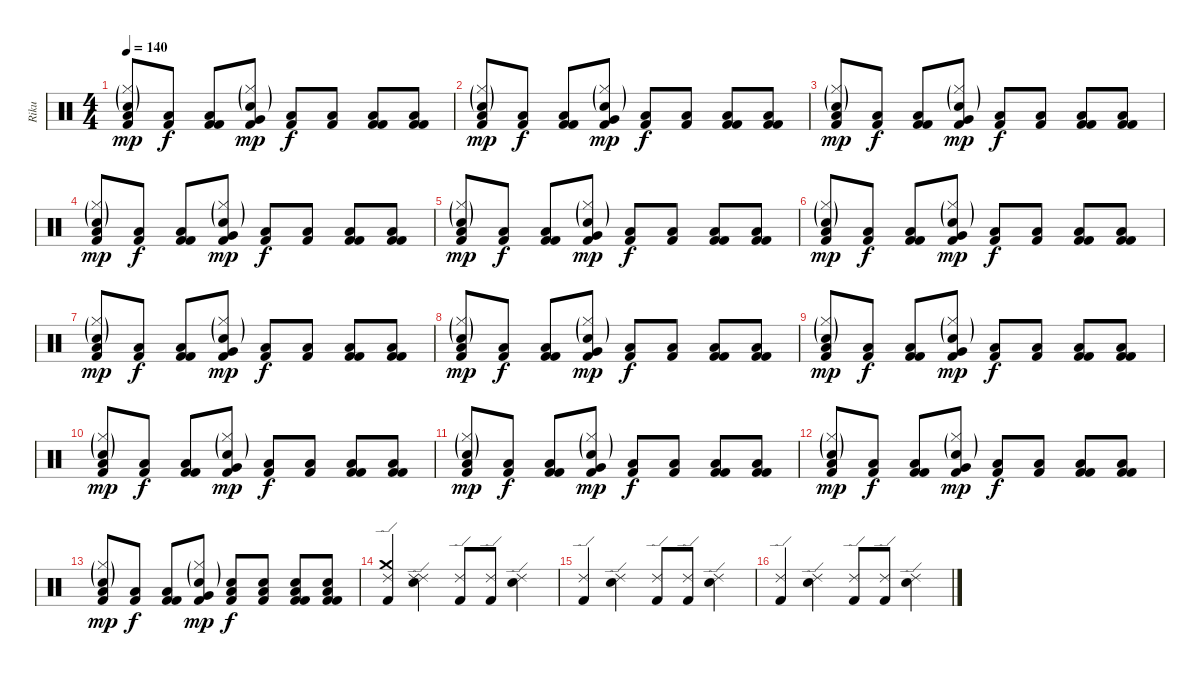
\track ("Riku" "Riku") {instrument percussion}
\staff {score}
\articulation defaults
\ts (4 4)
\tempo 140
\clef neutral
\ks c
("Kick (hit) 2" "Hi-Hat (closed)"{g} "Low Tom (hit)" "Electric Snare (hit)"{g}).8{dy mp} ("Kick (hit) 2" "Low Tom (hit)").8{dy f} ("Kick (hit) 2" "Low Tom (hit)" "Kick (hit) 2").8 ("Kick (hit) 2" "Hi-Hat (closed)"{g} "Very Low Tom (hit)" "Electric Snare (hit)"{g}).8{dy mp} ("Kick (hit) 2" "Low Tom (hit)").8{dy f} ("Kick (hit) 2" "Low Tom (hit)").8 ("Kick (hit) 2" "Low Tom (hit)" "Kick (hit) 2").8 ("Kick (hit) 2" "Low Tom (hit)" "Kick (hit) 2").8 |
("Kick (hit) 2" "Hi-Hat (closed)"{g} "Low Tom (hit)" "Electric Snare (hit)"{g}).8{dy mp} ("Kick (hit) 2" "Low Tom (hit)").8{dy f} ("Kick (hit) 2" "Low Tom (hit)" "Kick (hit) 2").8 ("Kick (hit) 2" "Hi-Hat (closed)"{g} "Very Low Tom (hit)" "Electric Snare (hit)"{g}).8{dy mp} ("Kick (hit) 2" "Low Tom (hit)").8{dy f} ("Kick (hit) 2" "Low Tom (hit)").8 ("Kick (hit) 2" "Low Tom (hit)" "Kick (hit) 2").8 ("Kick (hit) 2" "Low Tom (hit)" "Kick (hit) 2").8 |
("Kick (hit) 2" "Hi-Hat (closed)"{g} "Low Tom (hit)" "Electric Snare (hit)"{g}).8{dy mp} ("Kick (hit) 2" "Low Tom (hit)").8{dy f} ("Kick (hit) 2" "Low Tom (hit)" "Kick (hit) 2").8 ("Kick (hit) 2" "Hi-Hat (closed)"{g} "Very Low Tom (hit)" "Electric Snare (hit)"{g}).8{dy mp} ("Kick (hit) 2" "Low Tom (hit)").8{dy f} ("Kick (hit) 2" "Low Tom (hit)").8 ("Kick (hit) 2" "Low Tom (hit)" "Kick (hit) 2").8 ("Kick (hit) 2" "Low Tom (hit)" "Kick (hit) 2").8 |
("Kick (hit) 2" "Hi-Hat (closed)"{g} "Low Tom (hit)" "Electric Snare (hit)"{g}).8{dy mp} ("Kick (hit) 2" "Low Tom (hit)").8{dy f} ("Kick (hit) 2" "Low Tom (hit)" "Kick (hit) 2").8 ("Kick (hit) 2" "Hi-Hat (closed)"{g} "Very Low Tom (hit)" "Electric Snare (hit)"{g}).8{dy mp} ("Kick (hit) 2" "Low Tom (hit)").8{dy f} ("Kick (hit) 2" "Low Tom (hit)").8 ("Kick (hit) 2" "Low Tom (hit)" "Kick (hit) 2").8 ("Kick (hit) 2" "Low Tom (hit)" "Kick (hit) 2").8 |
("Kick (hit) 2" "Hi-Hat (closed)"{g} "Low Tom (hit)" "Electric Snare (hit)"{g}).8{dy mp} ("Kick (hit) 2" "Low Tom (hit)").8{dy f} ("Kick (hit) 2" "Low Tom (hit)" "Kick (hit) 2").8 ("Kick (hit) 2" "Hi-Hat (closed)"{g} "Very Low Tom (hit)" "Electric Snare (hit)"{g}).8{dy mp} ("Kick (hit) 2" "Low Tom (hit)").8{dy f} ("Kick (hit) 2" "Low Tom (hit)").8 ("Kick (hit) 2" "Low Tom (hit)" "Kick (hit) 2").8 ("Kick (hit) 2" "Low Tom (hit)" "Kick (hit) 2").8 |
("Kick (hit) 2" "Hi-Hat (closed)"{g} "Low Tom (hit)" "Electric Snare (hit)"{g}).8{dy mp} ("Kick (hit) 2" "Low Tom (hit)").8{dy f} ("Kick (hit) 2" "Low Tom (hit)" "Kick (hit) 2").8 ("Kick (hit) 2" "Hi-Hat (closed)"{g} "Very Low Tom (hit)" "Electric Snare (hit)"{g}).8{dy mp} ("Kick (hit) 2" "Low Tom (hit)").8{dy f} ("Kick (hit) 2" "Low Tom (hit)").8 ("Kick (hit) 2" "Low Tom (hit)" "Kick (hit) 2").8 ("Kick (hit) 2" "Low Tom (hit)" "Kick (hit) 2").8 |
("Kick (hit) 2" "Hi-Hat (closed)"{g} "Low Tom (hit)" "Electric Snare (hit)"{g}).8{dy mp} ("Kick (hit) 2" "Low Tom (hit)").8{dy f} ("Kick (hit) 2" "Low Tom (hit)" "Kick (hit) 2").8 ("Kick (hit) 2" "Hi-Hat (closed)"{g} "Very Low Tom (hit)" "Electric Snare (hit)"{g}).8{dy mp} ("Kick (hit) 2" "Low Tom (hit)").8{dy f} ("Kick (hit) 2" "Low Tom (hit)").8 ("Kick (hit) 2" "Low Tom (hit)" "Kick (hit) 2").8 ("Kick (hit) 2" "Low Tom (hit)" "Kick (hit) 2").8 |
("Kick (hit) 2" "Hi-Hat (closed)"{g} "Low Tom (hit)" "Electric Snare (hit)"{g}).8{dy mp} ("Kick (hit) 2" "Low Tom (hit)").8{dy f} ("Kick (hit) 2" "Low Tom (hit)" "Kick (hit) 2").8 ("Kick (hit) 2" "Hi-Hat (closed)"{g} "Very Low Tom (hit)" "Electric Snare (hit)"{g}).8{dy mp} ("Kick (hit) 2" "Low Tom (hit)").8{dy f} ("Kick (hit) 2" "Low Tom (hit)").8 ("Kick (hit) 2" "Low Tom (hit)" "Kick (hit) 2").8 ("Kick (hit) 2" "Low Tom (hit)" "Kick (hit) 2").8 |
("Kick (hit) 2" "Hi-Hat (closed)"{g} "Low Tom (hit)" "Electric Snare (hit)"{g}).8{dy mp} ("Kick (hit) 2" "Low Tom (hit)").8{dy f} ("Kick (hit) 2" "Low Tom (hit)" "Kick (hit) 2").8 ("Kick (hit) 2" "Hi-Hat (closed)"{g} "Very Low Tom (hit)" "Electric Snare (hit)"{g}).8{dy mp} ("Kick (hit) 2" "Low Tom (hit)").8{dy f} ("Kick (hit) 2" "Low Tom (hit)").8 ("Kick (hit) 2" "Low Tom (hit)" "Kick (hit) 2").8 ("Kick (hit) 2" "Low Tom (hit)" "Kick (hit) 2").8 |
("Kick (hit) 2" "Hi-Hat (closed)"{g} "Low Tom (hit)" "Electric Snare (hit)"{g}).8{dy mp} ("Kick (hit) 2" "Low Tom (hit)").8{dy f} ("Kick (hit) 2" "Low Tom (hit)" "Kick (hit) 2").8 ("Kick (hit) 2" "Hi-Hat (closed)"{g} "Very Low Tom (hit)" "Electric Snare (hit)"{g}).8{dy mp} ("Kick (hit) 2" "Low Tom (hit)").8{dy f} ("Kick (hit) 2" "Low Tom (hit)").8 ("Kick (hit) 2" "Low Tom (hit)" "Kick (hit) 2").8 ("Kick (hit) 2" "Low Tom (hit)" "Kick (hit) 2").8 |
("Kick (hit) 2" "Hi-Hat (closed)"{g} "Low Tom (hit)" "Electric Snare (hit)"{g}).8{dy mp} ("Kick (hit) 2" "Low Tom (hit)").8{dy f} ("Kick (hit) 2" "Low Tom (hit)" "Kick (hit) 2").8 ("Kick (hit) 2" "Hi-Hat (closed)"{g} "Very Low Tom (hit)" "Electric Snare (hit)"{g}).8{dy mp} ("Kick (hit) 2" "Low Tom (hit)").8{dy f} ("Kick (hit) 2" "Low Tom (hit)").8 ("Kick (hit) 2" "Low Tom (hit)" "Kick (hit) 2").8 ("Kick (hit) 2" "Low Tom (hit)" "Kick (hit) 2").8 |
("Kick (hit) 2" "Hi-Hat (closed)"{g} "Low Tom (hit)" "Electric Snare (hit)"{g}).8{dy mp} ("Kick (hit) 2" "Low Tom (hit)").8{dy f} ("Kick (hit) 2" "Low Tom (hit)" "Kick (hit) 2").8 ("Kick (hit) 2" "Hi-Hat (closed)"{g} "Very Low Tom (hit)" "Electric Snare (hit)"{g}).8{dy mp} ("Kick (hit) 2" "Low Tom (hit)").8{dy f} ("Kick (hit) 2" "Low Tom (hit)").8 ("Kick (hit) 2" "Low Tom (hit)" "Kick (hit) 2").8 ("Kick (hit) 2" "Low Tom (hit)" "Kick (hit) 2").8 |
("Kick (hit) 2" "Hi-Hat (closed)"{g} "Low Tom (hit)" "Electric Snare (hit)"{g}).8{dy mp} ("Kick (hit) 2" "Low Tom (hit)").8{dy f} ("Kick (hit) 2" "Low Tom (hit)" "Kick (hit) 2").8 ("Kick (hit) 2" "Hi-Hat (closed)"{g} "Very Low Tom (hit)" "Electric Snare (hit)"{g}).8{dy mp} ("Kick (hit) 2" "Snare (hit) 2" "Low Tom (hit)").8{dy f} ("Kick (hit) 2" "Snare (hit) 2" "Low Tom (hit)").8 ("Kick (hit) 2" "Snare (hit) 2" "Low Tom (hit)" "Kick (hit) 2").8 ("Kick (hit) 2" "Snare (hit) 2" "Low Tom (hit)" "Kick (hit) 2").8 |
("Kick (hit) 2" "Crash medium (hit)" "Ride (edge) 2").4 ("Ride (edge) 2" "Snare (hit) 2" "Ride (edge) 2").4 ("Kick (hit) 2" "Ride (edge) 2").8 ("Kick (hit) 2" "Ride (edge) 2").8 ("Snare (hit) 2" "Ride (edge) 2").4 |
("Ride (edge) 2" "Kick (hit) 2").4 ("Snare (hit) 2" "Ride (edge) 2").4 ("Kick (hit) 2" "Ride (edge) 2").8 ("Kick (hit) 2" "Ride (edge) 2").8 ("Snare (hit) 2" "Ride (edge) 2").4 |
("Ride (edge) 2" "Kick (hit) 2").4 ("Snare (hit) 2" "Ride (edge) 2").4 ("Kick (hit) 2" "Ride (edge) 2").8 ("Kick (hit) 2" "Ride (edge) 2").8 ("Snare (hit) 2" "Ride (edge) 2").4
